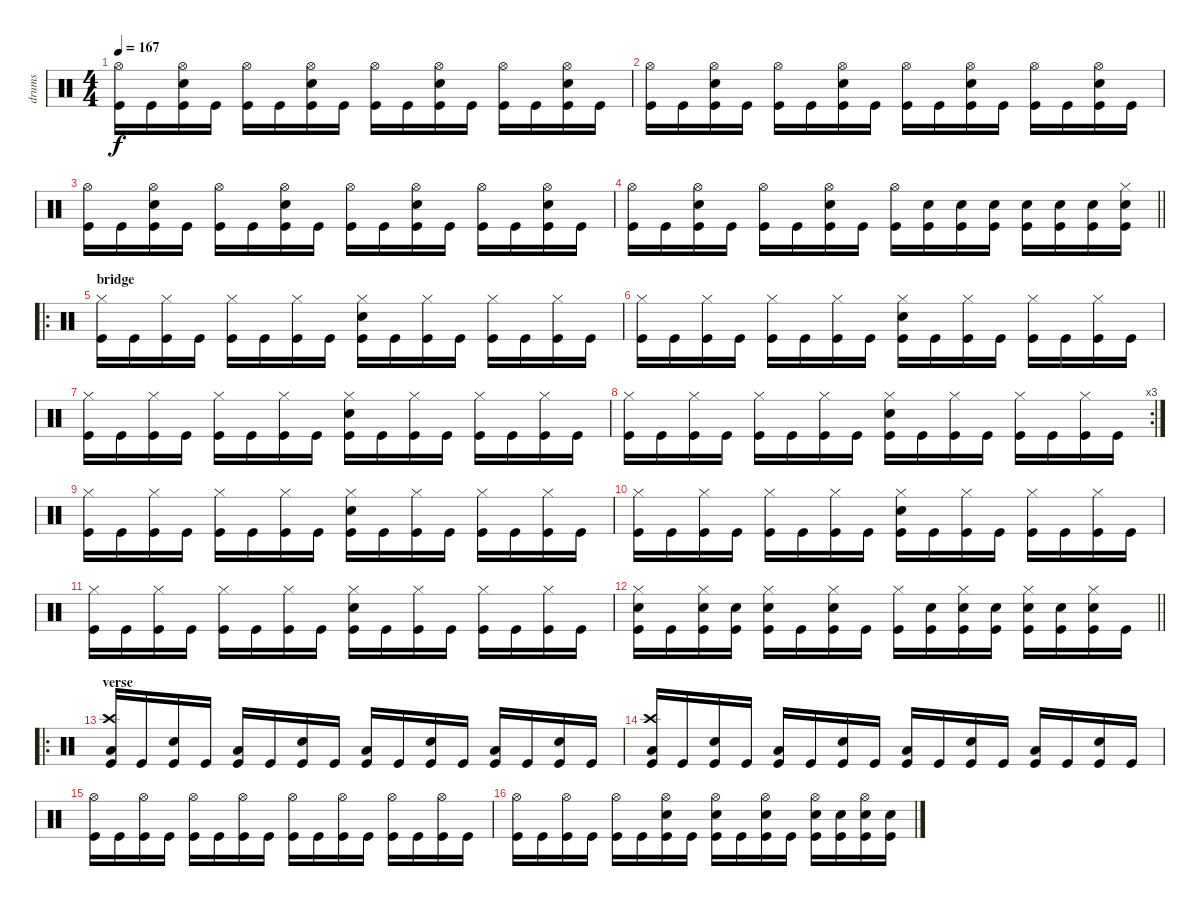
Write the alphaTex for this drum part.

\track ("drums" "drums") {instrument percussion}
\staff {score}
\articulation defaults
\ts (4 4)
\tempo 167
\clef neutral
\ks c
("Hi-Hat (open)" "Kick (hit)").16{dy f} "Kick (hit)".16 ("Snare (hit) 2" "Hi-Hat (open)" "Kick (hit)").16 "Kick (hit)".16 ("Hi-Hat (open)" "Kick (hit)").16 "Kick (hit)".16 ("Snare (hit) 2" "Hi-Hat (open)" "Kick (hit)").16 "Kick (hit)".16 ("Hi-Hat (open)" "Kick (hit)").16 "Kick (hit)".16 ("Snare (hit) 2" "Hi-Hat (open)" "Kick (hit)").16 "Kick (hit)".16 ("Hi-Hat (open)" "Kick (hit)").16 "Kick (hit)".16 ("Snare (hit) 2" "Hi-Hat (open)" "Kick (hit)").16 "Kick (hit)".16 |
("Hi-Hat (open)" "Kick (hit)").16 "Kick (hit)".16 ("Snare (hit) 2" "Hi-Hat (open)" "Kick (hit)").16 "Kick (hit)".16 ("Hi-Hat (open)" "Kick (hit)").16 "Kick (hit)".16 ("Snare (hit) 2" "Hi-Hat (open)" "Kick (hit)").16 "Kick (hit)".16 ("Hi-Hat (open)" "Kick (hit)").16 "Kick (hit)".16 ("Snare (hit) 2" "Hi-Hat (open)" "Kick (hit)").16 "Kick (hit)".16 ("Hi-Hat (open)" "Kick (hit)").16 "Kick (hit)".16 ("Snare (hit) 2" "Hi-Hat (open)" "Kick (hit)").16 "Kick (hit)".16 |
("Hi-Hat (open)" "Kick (hit)").16 "Kick (hit)".16 ("Snare (hit) 2" "Hi-Hat (open)" "Kick (hit)").16 "Kick (hit)".16 ("Hi-Hat (open)" "Kick (hit)").16 "Kick (hit)".16 ("Snare (hit) 2" "Hi-Hat (open)" "Kick (hit)").16 "Kick (hit)".16 ("Hi-Hat (open)" "Kick (hit)").16 "Kick (hit)".16 ("Snare (hit) 2" "Hi-Hat (open)" "Kick (hit)").16 "Kick (hit)".16 ("Hi-Hat (open)" "Kick (hit)").16 "Kick (hit)".16 ("Snare (hit) 2" "Hi-Hat (open)" "Kick (hit)").16 "Kick (hit)".16 |
\barLineRight lightlight
("Hi-Hat (open)" "Kick (hit)").16 "Kick (hit)".16 ("Snare (hit) 2" "Hi-Hat (open)" "Kick (hit)").16 "Kick (hit)".16 ("Hi-Hat (open)" "Kick (hit)").16 "Kick (hit)".16 ("Snare (hit) 2" "Hi-Hat (open)" "Kick (hit)").16 "Kick (hit)".16 ("Hi-Hat (open)" "Kick (hit)").16 ("Snare (hit) 2" "Kick (hit)").16 ("Snare (hit) 2" "Kick (hit)").16 ("Snare (hit) 2" "Kick (hit)").16 ("Snare (hit) 2" "Kick (hit)").16 ("Snare (hit) 2" "Kick (hit)").16 ("Snare (hit) 2" "Kick (hit)").16 ("Snare (hit) 2" "Hi-Hat (closed)" "Kick (hit)").16 |
\ro
\section ("" "bridge")
("Hi-Hat (closed)" "Kick (hit)").16 "Kick (hit)".16 ("Hi-Hat (closed)" "Kick (hit)").16 "Kick (hit)".16 ("Hi-Hat (closed)" "Kick (hit)").16 "Kick (hit)".16 ("Hi-Hat (closed)" "Kick (hit)").16 "Kick (hit)".16 ("Snare (hit) 2" "Hi-Hat (closed)" "Kick (hit)").16 "Kick (hit)".16 ("Hi-Hat (closed)" "Kick (hit)").16 "Kick (hit)".16 ("Hi-Hat (closed)" "Kick (hit)").16 "Kick (hit)".16 ("Hi-Hat (closed)" "Kick (hit)").16 "Kick (hit)".16 |
("Hi-Hat (closed)" "Kick (hit)").16 "Kick (hit)".16 ("Hi-Hat (closed)" "Kick (hit)").16 "Kick (hit)".16 ("Hi-Hat (closed)" "Kick (hit)").16 "Kick (hit)".16 ("Hi-Hat (closed)" "Kick (hit)").16 "Kick (hit)".16 ("Snare (hit) 2" "Hi-Hat (closed)" "Kick (hit)").16 "Kick (hit)".16 ("Hi-Hat (closed)" "Kick (hit)").16 "Kick (hit)".16 ("Hi-Hat (closed)" "Kick (hit)").16 "Kick (hit)".16 ("Hi-Hat (closed)" "Kick (hit)").16 "Kick (hit)".16 |
("Hi-Hat (closed)" "Kick (hit)").16 "Kick (hit)".16 ("Hi-Hat (closed)" "Kick (hit)").16 "Kick (hit)".16 ("Hi-Hat (closed)" "Kick (hit)").16 "Kick (hit)".16 ("Hi-Hat (closed)" "Kick (hit)").16 "Kick (hit)".16 ("Snare (hit) 2" "Hi-Hat (closed)" "Kick (hit)").16 "Kick (hit)".16 ("Hi-Hat (closed)" "Kick (hit)").16 "Kick (hit)".16 ("Hi-Hat (closed)" "Kick (hit)").16 "Kick (hit)".16 ("Hi-Hat (closed)" "Kick (hit)").16 "Kick (hit)".16 |
\rc 3
("Hi-Hat (closed)" "Kick (hit)").16 "Kick (hit)".16 ("Hi-Hat (closed)" "Kick (hit)").16 "Kick (hit)".16 ("Hi-Hat (closed)" "Kick (hit)").16 "Kick (hit)".16 ("Hi-Hat (closed)" "Kick (hit)").16 "Kick (hit)".16 ("Snare (hit) 2" "Hi-Hat (closed)" "Kick (hit)").16 "Kick (hit)".16 ("Hi-Hat (closed)" "Kick (hit)").16 "Kick (hit)".16 ("Hi-Hat (closed)" "Kick (hit)").16 "Kick (hit)".16 ("Hi-Hat (closed)" "Kick (hit)").16 "Kick (hit)".16 |
("Hi-Hat (closed)" "Kick (hit)").16 "Kick (hit)".16 ("Hi-Hat (closed)" "Kick (hit)").16 "Kick (hit)".16 ("Hi-Hat (closed)" "Kick (hit)").16 "Kick (hit)".16 ("Hi-Hat (closed)" "Kick (hit)").16 "Kick (hit)".16 ("Snare (hit) 2" "Hi-Hat (closed)" "Kick (hit)").16 "Kick (hit)".16 ("Hi-Hat (closed)" "Kick (hit)").16 "Kick (hit)".16 ("Hi-Hat (closed)" "Kick (hit)").16 "Kick (hit)".16 ("Hi-Hat (closed)" "Kick (hit)").16 "Kick (hit)".16 |
("Hi-Hat (closed)" "Kick (hit)").16 "Kick (hit)".16 ("Hi-Hat (closed)" "Kick (hit)").16 "Kick (hit)".16 ("Hi-Hat (closed)" "Kick (hit)").16 "Kick (hit)".16 ("Hi-Hat (closed)" "Kick (hit)").16 "Kick (hit)".16 ("Snare (hit) 2" "Hi-Hat (closed)" "Kick (hit)").16 "Kick (hit)".16 ("Hi-Hat (closed)" "Kick (hit)").16 "Kick (hit)".16 ("Hi-Hat (closed)" "Kick (hit)").16 "Kick (hit)".16 ("Hi-Hat (closed)" "Kick (hit)").16 "Kick (hit)".16 |
("Hi-Hat (closed)" "Kick (hit)").16 "Kick (hit)".16 ("Hi-Hat (closed)" "Kick (hit)").16 "Kick (hit)".16 ("Hi-Hat (closed)" "Kick (hit)").16 "Kick (hit)".16 ("Hi-Hat (closed)" "Kick (hit)").16 "Kick (hit)".16 ("Snare (hit) 2" "Hi-Hat (closed)" "Kick (hit)").16 "Kick (hit)".16 ("Hi-Hat (closed)" "Kick (hit)").16 "Kick (hit)".16 ("Hi-Hat (closed)" "Kick (hit)").16 "Kick (hit)".16 ("Hi-Hat (closed)" "Kick (hit)").16 "Kick (hit)".16 |
\barLineRight lightlight
("Snare (hit) 2" "Hi-Hat (closed)" "Kick (hit)").16 "Kick (hit)".16 ("Snare (hit) 2" "Hi-Hat (closed)" "Kick (hit)").16 ("Snare (hit) 2" "Kick (hit)").16 ("Snare (hit) 2" "Hi-Hat (closed)" "Kick (hit)").16 "Kick (hit)".16 ("Snare (hit) 2" "Hi-Hat (closed)" "Kick (hit)").16 "Kick (hit)".16 ("Hi-Hat (closed)" "Kick (hit)").16 ("Snare (hit) 2" "Kick (hit)").16 ("Snare (hit) 2" "Hi-Hat (closed)" "Kick (hit)").16 ("Snare (hit) 2" "Kick (hit)").16 ("Snare (hit) 2" "Hi-Hat (closed)" "Kick (hit)").16 ("Snare (hit) 2" "Kick (hit)").16 ("Snare (hit) 2" "Hi-Hat (closed)" "Kick (hit)").16 "Kick (hit)".16 |
\ro
\section ("" "verse")
("Crash high (hit)" "Low Tom (hit)" "Kick (hit)").16 "Kick (hit)".16 ("Snare (hit) 2" "Kick (hit)").16 "Kick (hit)".16 ("Low Tom (hit)" "Kick (hit)").16 "Kick (hit)".16 ("Snare (hit) 2" "Kick (hit)").16 "Kick (hit)".16 ("Low Tom (hit)" "Kick (hit)").16 "Kick (hit)".16 ("Snare (hit) 2" "Kick (hit)").16 "Kick (hit)".16 ("Low Tom (hit)" "Kick (hit)").16 "Kick (hit)".16 ("Snare (hit) 2" "Kick (hit)").16 "Kick (hit)".16 |
("Crash high (hit)" "Low Tom (hit)" "Kick (hit)").16 "Kick (hit)".16 ("Snare (hit) 2" "Kick (hit)").16 "Kick (hit)".16 ("Low Tom (hit)" "Kick (hit)").16 "Kick (hit)".16 ("Snare (hit) 2" "Kick (hit)").16 "Kick (hit)".16 ("Low Tom (hit)" "Kick (hit)").16 "Kick (hit)".16 ("Snare (hit) 2" "Kick (hit)").16 "Kick (hit)".16 ("Low Tom (hit)" "Kick (hit)").16 "Kick (hit)".16 ("Snare (hit) 2" "Kick (hit)").16 "Kick (hit)".16 |
("Hi-Hat (open)" "Kick (hit)").16 "Kick (hit)".16 ("Hi-Hat (open)" "Kick (hit)").16 "Kick (hit)".16 ("Hi-Hat (open)" "Kick (hit)").16 "Kick (hit)".16 ("Hi-Hat (open)" "Kick (hit)").16 "Kick (hit)".16 ("Hi-Hat (open)" "Kick (hit)").16 "Kick (hit)".16 ("Hi-Hat (open)" "Kick (hit)").16 "Kick (hit)".16 ("Hi-Hat (open)" "Kick (hit)").16 "Kick (hit)".16 ("Hi-Hat (open)" "Kick (hit)").16 "Kick (hit)".16 |
("Hi-Hat (open)" "Kick (hit)").16 "Kick (hit)".16 ("Hi-Hat (open)" "Kick (hit)").16 "Kick (hit)".16 ("Hi-Hat (open)" "Kick (hit)").16 "Kick (hit)".16 ("Snare (hit) 2" "Hi-Hat (open)" "Kick (hit)").16 "Kick (hit)".16 ("Snare (hit) 2" "Hi-Hat (open)" "Kick (hit)").16 "Kick (hit)".16 ("Snare (hit) 2" "Hi-Hat (open)" "Kick (hit)").16 "Kick (hit)".16 ("Snare (hit) 2" "Hi-Hat (open)" "Kick (hit)").16 ("Snare (hit) 2" "Kick (hit)").16 ("Snare (hit) 2" "Hi-Hat (open)" "Kick (hit)").16 ("Snare (hit) 2" "Kick (hit)").16
